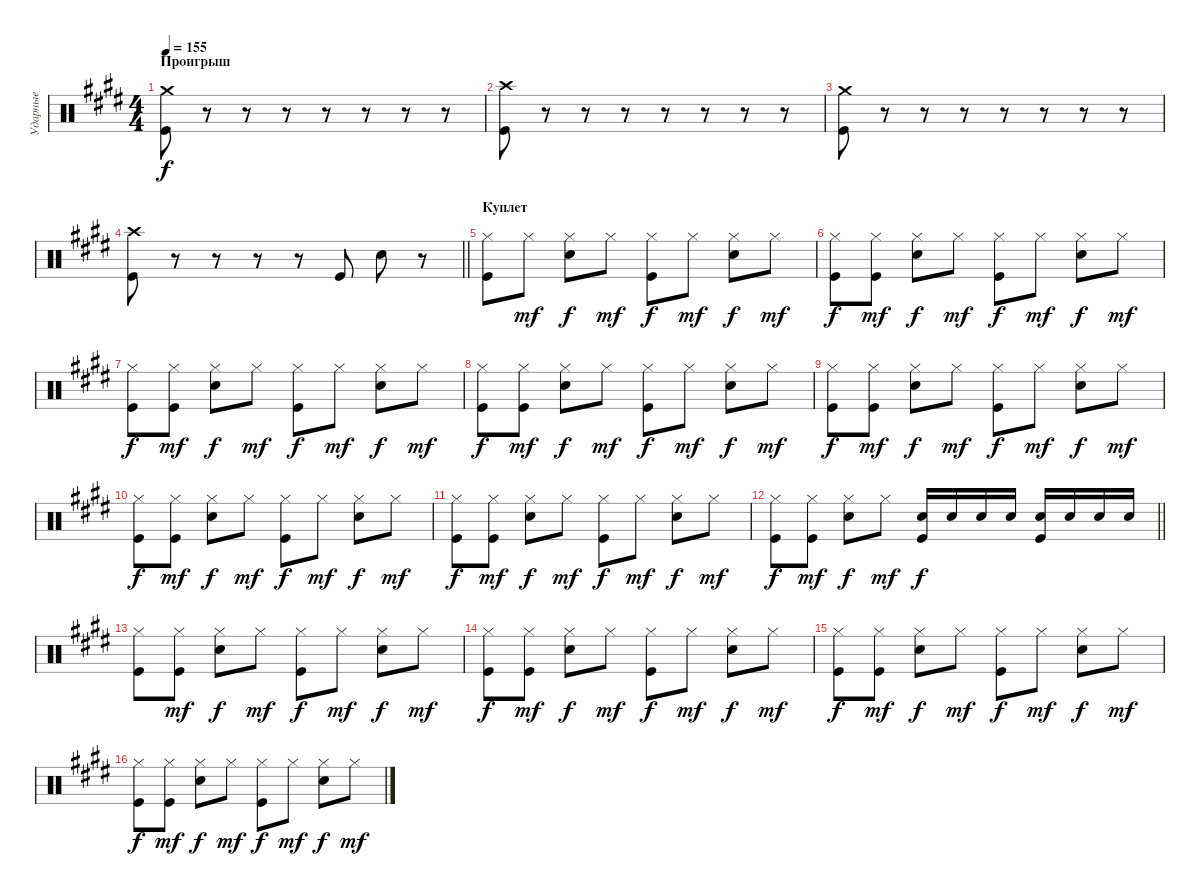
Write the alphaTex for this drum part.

\track ("Ударные" "Ударные") {instrument percussion}
\staff {score}
\articulation defaults
\ts (4 4)
\section ("" "Проигрыш")
\tempo 155
\clef neutral
\ks e
("Crash medium (hit)" "Kick (hit)").8{dy f} r.8 r.8 r.8 r.8 r.8 r.8 r.8 |
("Crash high (hit)" "Kick (hit)").8 r.8 r.8 r.8 r.8 r.8 r.8 r.8 |
("Crash medium (hit)" "Kick (hit)").8 r.8 r.8 r.8 r.8 r.8 r.8 r.8 |
\barLineRight lightlight
("Crash high (hit)" "Kick (hit)").8 r.8 r.8 r.8 r.8 "Kick (hit)".8 "Electric Snare (hit)".8 r.8 |
\section ("" "Куплет")
("Hi-Hat (closed)" "Kick (hit)").8 "Hi-Hat (closed)".8{dy mf} ("Hi-Hat (closed)" "Electric Snare (hit)").8{dy f} "Hi-Hat (closed)".8{dy mf} ("Hi-Hat (closed)" "Kick (hit)").8{dy f} "Hi-Hat (closed)".8{dy mf} ("Hi-Hat (closed)" "Electric Snare (hit)").8{dy f} "Hi-Hat (closed)".8{dy mf} |
("Hi-Hat (closed)" "Kick (hit)").8{dy f} ("Hi-Hat (closed)" "Kick (hit)").8{dy mf} ("Hi-Hat (closed)" "Electric Snare (hit)").8{dy f} "Hi-Hat (closed)".8{dy mf} ("Hi-Hat (closed)" "Kick (hit)").8{dy f} "Hi-Hat (closed)".8{dy mf} ("Hi-Hat (closed)" "Electric Snare (hit)").8{dy f} "Hi-Hat (closed)".8{dy mf} |
("Hi-Hat (closed)" "Kick (hit)").8{dy f} ("Hi-Hat (closed)" "Kick (hit)").8{dy mf} ("Hi-Hat (closed)" "Electric Snare (hit)").8{dy f} "Hi-Hat (closed)".8{dy mf} ("Hi-Hat (closed)" "Kick (hit)").8{dy f} "Hi-Hat (closed)".8{dy mf} ("Hi-Hat (closed)" "Electric Snare (hit)").8{dy f} "Hi-Hat (closed)".8{dy mf} |
("Hi-Hat (closed)" "Kick (hit)").8{dy f} ("Hi-Hat (closed)" "Kick (hit)").8{dy mf} ("Hi-Hat (closed)" "Electric Snare (hit)").8{dy f} "Hi-Hat (closed)".8{dy mf} ("Hi-Hat (closed)" "Kick (hit)").8{dy f} "Hi-Hat (closed)".8{dy mf} ("Hi-Hat (closed)" "Electric Snare (hit)").8{dy f} "Hi-Hat (closed)".8{dy mf} |
("Hi-Hat (closed)" "Kick (hit)").8{dy f} ("Hi-Hat (closed)" "Kick (hit)").8{dy mf} ("Hi-Hat (closed)" "Electric Snare (hit)").8{dy f} "Hi-Hat (closed)".8{dy mf} ("Hi-Hat (closed)" "Kick (hit)").8{dy f} "Hi-Hat (closed)".8{dy mf} ("Hi-Hat (closed)" "Electric Snare (hit)").8{dy f} "Hi-Hat (closed)".8{dy mf} |
("Hi-Hat (closed)" "Kick (hit)").8{dy f} ("Hi-Hat (closed)" "Kick (hit)").8{dy mf} ("Hi-Hat (closed)" "Electric Snare (hit)").8{dy f} "Hi-Hat (closed)".8{dy mf} ("Hi-Hat (closed)" "Kick (hit)").8{dy f} "Hi-Hat (closed)".8{dy mf} ("Hi-Hat (closed)" "Electric Snare (hit)").8{dy f} "Hi-Hat (closed)".8{dy mf} |
("Hi-Hat (closed)" "Kick (hit)").8{dy f} ("Hi-Hat (closed)" "Kick (hit)").8{dy mf} ("Hi-Hat (closed)" "Electric Snare (hit)").8{dy f} "Hi-Hat (closed)".8{dy mf} ("Hi-Hat (closed)" "Kick (hit)").8{dy f} "Hi-Hat (closed)".8{dy mf} ("Hi-Hat (closed)" "Electric Snare (hit)").8{dy f} "Hi-Hat (closed)".8{dy mf} |
\barLineRight lightlight
("Hi-Hat (closed)" "Kick (hit)").8{dy f} ("Hi-Hat (closed)" "Kick (hit)").8{dy mf} ("Hi-Hat (closed)" "Electric Snare (hit)").8{dy f} "Hi-Hat (closed)".8{dy mf} ("Electric Snare (hit)" "Kick (hit)").16{dy f} "Electric Snare (hit)".16 "Electric Snare (hit)".16 "Electric Snare (hit)".16 ("Electric Snare (hit)" "Kick (hit)").16 "Electric Snare (hit)".16 "Electric Snare (hit)".16 "Electric Snare (hit)".16 |
\section ("" " ")
("Hi-Hat (closed)" "Kick (hit)").8 ("Hi-Hat (closed)" "Kick (hit)").8{dy mf} ("Hi-Hat (closed)" "Electric Snare (hit)").8{dy f} "Hi-Hat (closed)".8{dy mf} ("Hi-Hat (closed)" "Kick (hit)").8{dy f} "Hi-Hat (closed)".8{dy mf} ("Hi-Hat (closed)" "Electric Snare (hit)").8{dy f} "Hi-Hat (closed)".8{dy mf} |
("Hi-Hat (closed)" "Kick (hit)").8{dy f} ("Hi-Hat (closed)" "Kick (hit)").8{dy mf} ("Hi-Hat (closed)" "Electric Snare (hit)").8{dy f} "Hi-Hat (closed)".8{dy mf} ("Hi-Hat (closed)" "Kick (hit)").8{dy f} "Hi-Hat (closed)".8{dy mf} ("Hi-Hat (closed)" "Electric Snare (hit)").8{dy f} "Hi-Hat (closed)".8{dy mf} |
("Hi-Hat (closed)" "Kick (hit)").8{dy f} ("Hi-Hat (closed)" "Kick (hit)").8{dy mf} ("Hi-Hat (closed)" "Electric Snare (hit)").8{dy f} "Hi-Hat (closed)".8{dy mf} ("Hi-Hat (closed)" "Kick (hit)").8{dy f} "Hi-Hat (closed)".8{dy mf} ("Hi-Hat (closed)" "Electric Snare (hit)").8{dy f} "Hi-Hat (closed)".8{dy mf} |
("Hi-Hat (closed)" "Kick (hit)").8{dy f} ("Hi-Hat (closed)" "Kick (hit)").8{dy mf} ("Hi-Hat (closed)" "Electric Snare (hit)").8{dy f} "Hi-Hat (closed)".8{dy mf} ("Hi-Hat (closed)" "Kick (hit)").8{dy f} "Hi-Hat (closed)".8{dy mf} ("Hi-Hat (closed)" "Electric Snare (hit)").8{dy f} "Hi-Hat (closed)".8{dy mf}
